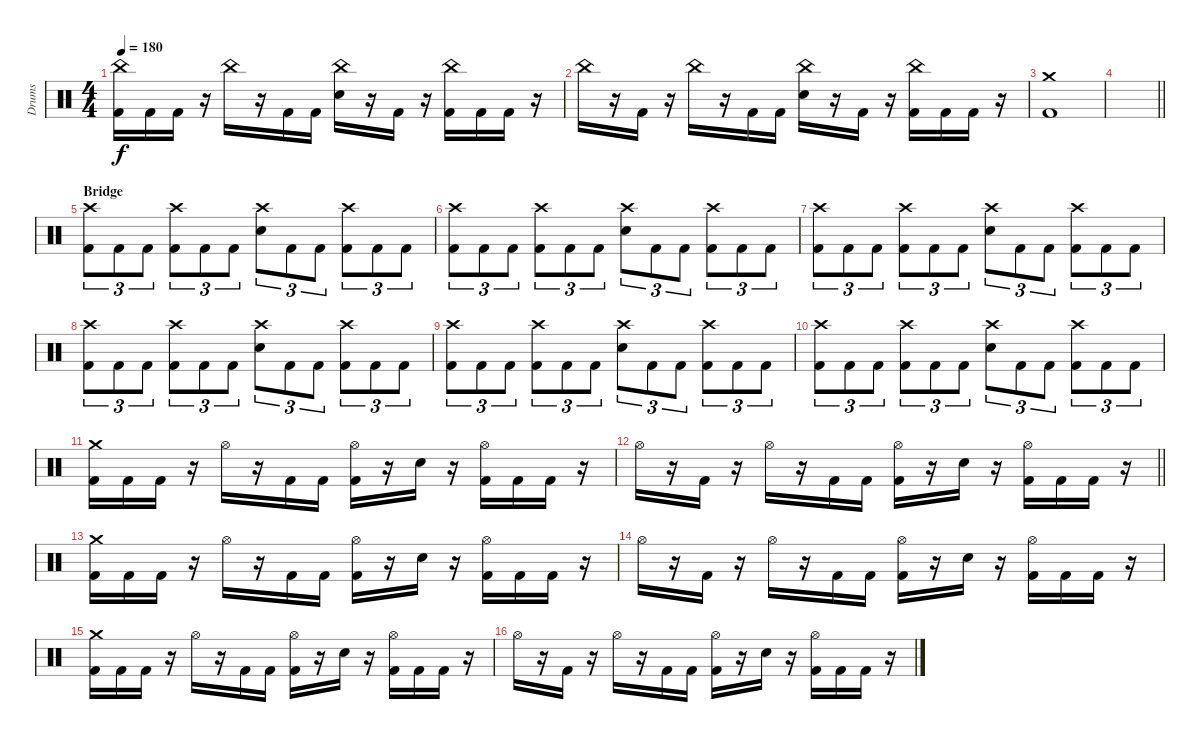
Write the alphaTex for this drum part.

\track ("Drums" "Drums") {instrument percussion}
\staff {score}
\articulation defaults
\ts (4 4)
\tempo 180
\clef neutral
\ks c
("Kick (hit) 2" "China (hit)").16{dy f} "Kick (hit) 2".16 "Kick (hit) 2".16 r.16 "China (hit)".16 r.16 "Kick (hit) 2".16 "Kick (hit) 2".16 ("Electric Snare (hit)" "China (hit)").16 r.16 "Kick (hit) 2".16 r.16 ("Kick (hit) 2" "China (hit)").16 "Kick (hit) 2".16 "Kick (hit) 2".16 r.16 |
"China (hit)".16 r.16 "Kick (hit) 2".16 r.16 "China (hit)".16 r.16 "Kick (hit) 2".16 "Kick (hit) 2".16 ("Electric Snare (hit)" "China (hit)").16 r.16 "Kick (hit) 2".16 r.16 ("Kick (hit) 2" "China (hit)").16 "Kick (hit) 2".16 "Kick (hit) 2".16 r.16 |
("Crash medium (hit)" "Kick (hit) 2").1 |
\barLineRight lightlight
|
\section ("" "Bridge")
("Crash high (hit)" "Kick (hit) 2").8{tu (3 2)} "Kick (hit) 2".8{tu (3 2)} "Kick (hit) 2".8{tu (3 2)} ("Crash high (hit)" "Kick (hit) 2").8{tu (3 2)} "Kick (hit) 2".8{tu (3 2)} "Kick (hit) 2".8{tu (3 2)} ("Crash high (hit)" "Electric Snare (hit)").8{tu (3 2)} "Kick (hit) 2".8{tu (3 2)} "Kick (hit) 2".8{tu (3 2)} ("Crash high (hit)" "Kick (hit) 2").8{tu (3 2)} "Kick (hit) 2".8{tu (3 2)} "Kick (hit) 2".8{tu (3 2)} |
("Crash high (hit)" "Kick (hit) 2").8{tu (3 2)} "Kick (hit) 2".8{tu (3 2)} "Kick (hit) 2".8{tu (3 2)} ("Crash high (hit)" "Kick (hit) 2").8{tu (3 2)} "Kick (hit) 2".8{tu (3 2)} "Kick (hit) 2".8{tu (3 2)} ("Crash high (hit)" "Electric Snare (hit)").8{tu (3 2)} "Kick (hit) 2".8{tu (3 2)} "Kick (hit) 2".8{tu (3 2)} ("Crash high (hit)" "Kick (hit) 2").8{tu (3 2)} "Kick (hit) 2".8{tu (3 2)} "Kick (hit) 2".8{tu (3 2)} |
("Crash high (hit)" "Kick (hit) 2").8{tu (3 2)} "Kick (hit) 2".8{tu (3 2)} "Kick (hit) 2".8{tu (3 2)} ("Crash high (hit)" "Kick (hit) 2").8{tu (3 2)} "Kick (hit) 2".8{tu (3 2)} "Kick (hit) 2".8{tu (3 2)} ("Crash high (hit)" "Electric Snare (hit)").8{tu (3 2)} "Kick (hit) 2".8{tu (3 2)} "Kick (hit) 2".8{tu (3 2)} ("Crash high (hit)" "Kick (hit) 2").8{tu (3 2)} "Kick (hit) 2".8{tu (3 2)} "Kick (hit) 2".8{tu (3 2)} |
("Crash high (hit)" "Kick (hit) 2").8{tu (3 2)} "Kick (hit) 2".8{tu (3 2)} "Kick (hit) 2".8{tu (3 2)} ("Crash high (hit)" "Kick (hit) 2").8{tu (3 2)} "Kick (hit) 2".8{tu (3 2)} "Kick (hit) 2".8{tu (3 2)} ("Crash high (hit)" "Electric Snare (hit)").8{tu (3 2)} "Kick (hit) 2".8{tu (3 2)} "Kick (hit) 2".8{tu (3 2)} ("Crash high (hit)" "Kick (hit) 2").8{tu (3 2)} "Kick (hit) 2".8{tu (3 2)} "Kick (hit) 2".8{tu (3 2)} |
("Crash high (hit)" "Kick (hit) 2").8{tu (3 2)} "Kick (hit) 2".8{tu (3 2)} "Kick (hit) 2".8{tu (3 2)} ("Crash high (hit)" "Kick (hit) 2").8{tu (3 2)} "Kick (hit) 2".8{tu (3 2)} "Kick (hit) 2".8{tu (3 2)} ("Crash high (hit)" "Electric Snare (hit)").8{tu (3 2)} "Kick (hit) 2".8{tu (3 2)} "Kick (hit) 2".8{tu (3 2)} ("Crash high (hit)" "Kick (hit) 2").8{tu (3 2)} "Kick (hit) 2".8{tu (3 2)} "Kick (hit) 2".8{tu (3 2)} |
("Crash high (hit)" "Kick (hit) 2").8{tu (3 2)} "Kick (hit) 2".8{tu (3 2)} "Kick (hit) 2".8{tu (3 2)} ("Crash high (hit)" "Kick (hit) 2").8{tu (3 2)} "Kick (hit) 2".8{tu (3 2)} "Kick (hit) 2".8{tu (3 2)} ("Crash high (hit)" "Electric Snare (hit)").8{tu (3 2)} "Kick (hit) 2".8{tu (3 2)} "Kick (hit) 2".8{tu (3 2)} ("Crash high (hit)" "Kick (hit) 2").8{tu (3 2)} "Kick (hit) 2".8{tu (3 2)} "Kick (hit) 2".8{tu (3 2)} |
("Crash medium (hit)" "Kick (hit) 2").16 "Kick (hit) 2".16 "Kick (hit) 2".16 r.16 "Hi-Hat (open)".16 r.16 "Kick (hit) 2".16 "Kick (hit) 2".16 ("Hi-Hat (open)" "Kick (hit) 2").16 r.16 "Electric Snare (hit)".16 r.16 ("Hi-Hat (open)" "Kick (hit) 2").16 "Kick (hit) 2".16 "Kick (hit) 2".16 r.16 |
\barLineRight lightlight "Hi-Hat (open)".16
r.16 "Kick (hit) 2".16 r.16 "Hi-Hat (open)".16 r.16 "Kick (hit) 2".16 "Kick (hit) 2".16 ("Hi-Hat (open)" "Kick (hit) 2").16 r.16 "Electric Snare (hit)".16 r.16 ("Hi-Hat (open)" "Kick (hit) 2").16 "Kick (hit) 2".16 "Kick (hit) 2".16 r.16 |
("Crash medium (hit)" "Kick (hit) 2").16 "Kick (hit) 2".16 "Kick (hit) 2".16 r.16 "Hi-Hat (open)".16 r.16 "Kick (hit) 2".16 "Kick (hit) 2".16 ("Hi-Hat (open)" "Kick (hit) 2").16 r.16 "Electric Snare (hit)".16 r.16 ("Hi-Hat (open)" "Kick (hit) 2").16 "Kick (hit) 2".16 "Kick (hit) 2".16 r.16 |
"Hi-Hat (open)".16 r.16 "Kick (hit) 2".16 r.16 "Hi-Hat (open)".16 r.16 "Kick (hit) 2".16 "Kick (hit) 2".16 ("Hi-Hat (open)" "Kick (hit) 2").16 r.16 "Electric Snare (hit)".16 r.16 ("Hi-Hat (open)" "Kick (hit) 2").16 "Kick (hit) 2".16 "Kick (hit) 2".16 r.16 |
("Crash medium (hit)" "Kick (hit) 2").16 "Kick (hit) 2".16 "Kick (hit) 2".16 r.16 "Hi-Hat (open)".16 r.16 "Kick (hit) 2".16 "Kick (hit) 2".16 ("Hi-Hat (open)" "Kick (hit) 2").16 r.16 "Electric Snare (hit)".16 r.16 ("Hi-Hat (open)" "Kick (hit) 2").16 "Kick (hit) 2".16 "Kick (hit) 2".16 r.16 |
"Hi-Hat (open)".16 r.16 "Kick (hit) 2".16 r.16 "Hi-Hat (open)".16 r.16 "Kick (hit) 2".16 "Kick (hit) 2".16 ("Hi-Hat (open)" "Kick (hit) 2").16 r.16 "Electric Snare (hit)".16 r.16 ("Hi-Hat (open)" "Kick (hit) 2").16 "Kick (hit) 2".16 "Kick (hit) 2".16 r.16
